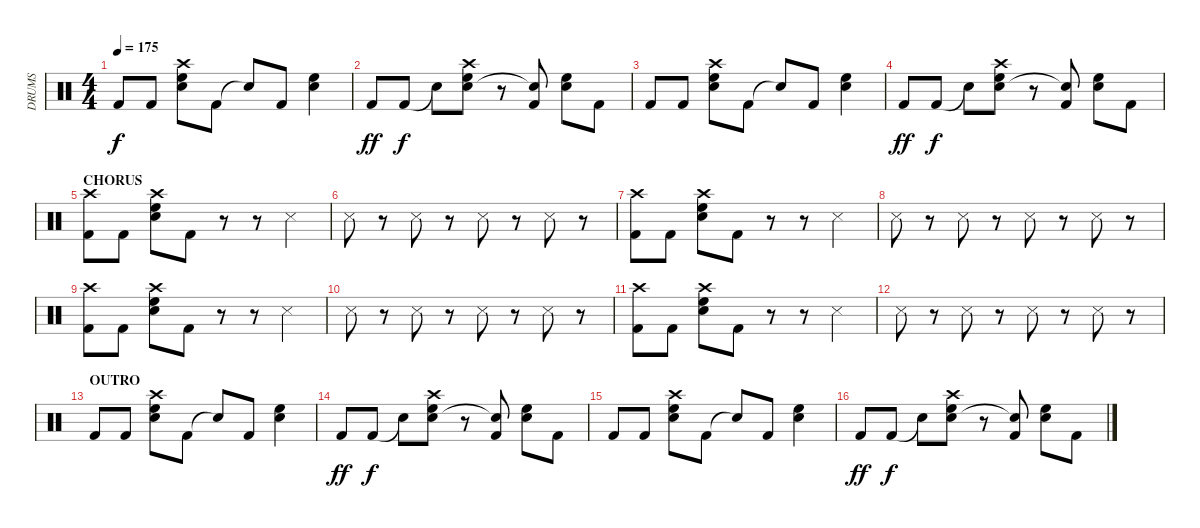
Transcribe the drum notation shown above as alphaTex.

\track ("DRUMS" "DRUMS") {instrument percussion}
\staff {score}
\articulation defaults
\ts (4 4)
\tempo 175
\clef neutral
\ks c "Kick (hit) 2".8{dy f} "Kick (hit) 2".8
("High Floor Tom (hit)" "Electric Snare (hit)" "Crash high (hit)").8 "Kick (hit) 2".8 "Snare (hit)"{t}.8 "Kick (hit) 2".8 ("High Floor Tom (hit)" "Electric Snare (hit)").4 |
"Kick (hit) 2".8{dy ff} "Kick (hit) 2".8{dy f} "Snare (hit)"{t}.8 ("High Floor Tom (hit)" "Electric Snare (hit)" "Crash high (hit)").8 r.8 ("Kick (hit) 2" "Snare (hit)"{t}).8 ("High Floor Tom (hit)" "Electric Snare (hit)").8 "Kick (hit) 2".8 |
"Kick (hit) 2".8 "Kick (hit) 2".8 ("High Floor Tom (hit)" "Electric Snare (hit)" "Crash high (hit)").8 "Kick (hit) 2".8 "Snare (hit)"{t}.8 "Kick (hit) 2".8 ("High Floor Tom (hit)" "Electric Snare (hit)").4 |
"Kick (hit) 2".8{dy ff} "Kick (hit) 2".8{dy f} "Snare (hit)"{t}.8 ("High Floor Tom (hit)" "Electric Snare (hit)" "Crash high (hit)").8 r.8 ("Kick (hit) 2" "Snare (hit)"{t}).8 ("High Floor Tom (hit)" "Electric Snare (hit)").8 "Kick (hit) 2".8 |
\section ("" "CHORUS")
("Kick (hit) 2" "Crash high (hit)").8 "Kick (hit) 2".8 ("High Floor Tom (hit)" "Electric Snare (hit)" "Crash high (hit)").8 "Kick (hit) 2".8 r.8 r.8 "Metronome (hit)".4 |
"Metronome (hit)".8 r.8 "Metronome (hit)".8 r.8 "Metronome (hit)".8 r.8 "Metronome (hit)".8 r.8 |
("Kick (hit) 2" "Crash high (hit)").8 "Kick (hit) 2".8 ("High Floor Tom (hit)" "Electric Snare (hit)" "Crash high (hit)").8 "Kick (hit) 2".8 r.8 r.8 "Metronome (hit)".4 |
"Metronome (hit)".8 r.8 "Metronome (hit)".8 r.8 "Metronome (hit)".8 r.8 "Metronome (hit)".8 r.8 |
("Kick (hit) 2" "Crash high (hit)").8 "Kick (hit) 2".8 ("High Floor Tom (hit)" "Electric Snare (hit)" "Crash high (hit)").8 "Kick (hit) 2".8 r.8 r.8 "Metronome (hit)".4 |
"Metronome (hit)".8 r.8 "Metronome (hit)".8 r.8 "Metronome (hit)".8 r.8 "Metronome (hit)".8 r.8 |
("Kick (hit) 2" "Crash high (hit)").8 "Kick (hit) 2".8 ("High Floor Tom (hit)" "Electric Snare (hit)" "Crash high (hit)").8 "Kick (hit) 2".8 r.8 r.8 "Metronome (hit)".4 |
"Metronome (hit)".8 r.8 "Metronome (hit)".8 r.8 "Metronome (hit)".8 r.8 "Metronome (hit)".8 r.8 |
\section ("" "OUTRO")
"Kick (hit) 2".8 "Kick (hit) 2".8 ("High Floor Tom (hit)" "Electric Snare (hit)" "Crash high (hit)").8 "Kick (hit) 2".8 "Snare (hit)"{t}.8 "Kick (hit) 2".8 ("High Floor Tom (hit)" "Electric Snare (hit)").4 |
"Kick (hit) 2".8{dy ff} "Kick (hit) 2".8{dy f} "Snare (hit)"{t}.8 ("High Floor Tom (hit)" "Electric Snare (hit)" "Crash high (hit)").8 r.8 ("Kick (hit) 2" "Snare (hit)"{t}).8 ("High Floor Tom (hit)" "Electric Snare (hit)").8 "Kick (hit) 2".8 |
"Kick (hit) 2".8 "Kick (hit) 2".8 ("High Floor Tom (hit)" "Electric Snare (hit)" "Crash high (hit)").8 "Kick (hit) 2".8 "Snare (hit)"{t}.8 "Kick (hit) 2".8 ("High Floor Tom (hit)" "Electric Snare (hit)").4 |
"Kick (hit) 2".8{dy ff} "Kick (hit) 2".8{dy f} "Snare (hit)"{t}.8 ("High Floor Tom (hit)" "Electric Snare (hit)" "Crash high (hit)").8 r.8 ("Kick (hit) 2" "Snare (hit)"{t}).8 ("High Floor Tom (hit)" "Electric Snare (hit)").8 "Kick (hit) 2".8
